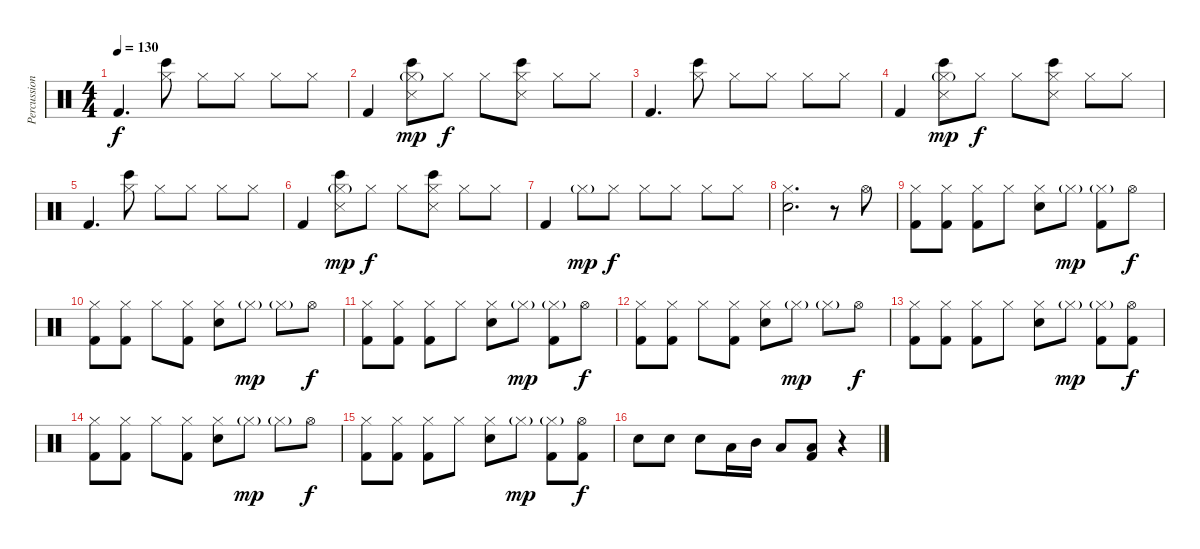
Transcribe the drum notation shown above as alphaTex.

\track ("Percussion" "Percussion") {instrument percussion}
\staff {score}
\articulation defaults
\ts (4 4)
\tempo 130
\clef neutral
\ks c "Kick (hit) 2".4{d dy f}
("Hi-Hat (closed)" "Bongo High (hit)").8 "Hi-Hat (closed)".8 "Hi-Hat (closed)".8 "Hi-Hat (closed)".8 "Hi-Hat (closed)".8 |
"Kick (hit) 2".4 ("Hi-Hat (closed)"{g} "Bongo High (hit)" "Snare (side stick) 3").8{dy mp} "Hi-Hat (closed)".8{dy f} "Hi-Hat (closed)".8 ("Hi-Hat (closed)" "Bongo High (hit)" "Snare (side stick) 3").8 "Hi-Hat (closed)".8 "Hi-Hat (closed)".8 |
"Kick (hit) 2".4{d} ("Hi-Hat (closed)" "Bongo High (hit)").8 "Hi-Hat (closed)".8 "Hi-Hat (closed)".8 "Hi-Hat (closed)".8 "Hi-Hat (closed)".8 |
"Kick (hit) 2".4 ("Hi-Hat (closed)"{g} "Bongo High (hit)" "Snare (side stick) 3").8{dy mp} "Hi-Hat (closed)".8{dy f} "Hi-Hat (closed)".8 ("Hi-Hat (closed)" "Bongo High (hit)" "Snare (side stick) 3").8 "Hi-Hat (closed)".8 "Hi-Hat (closed)".8 |
"Kick (hit) 2".4{d} ("Hi-Hat (closed)" "Bongo High (hit)").8 "Hi-Hat (closed)".8 "Hi-Hat (closed)".8 "Hi-Hat (closed)".8 "Hi-Hat (closed)".8 |
"Kick (hit) 2".4 ("Hi-Hat (closed)"{g} "Bongo High (hit)" "Snare (side stick) 3").8{dy mp} "Hi-Hat (closed)".8{dy f} "Hi-Hat (closed)".8 ("Hi-Hat (closed)" "Bongo High (hit)" "Snare (side stick) 3").8 "Hi-Hat (closed)".8 "Hi-Hat (closed)".8 |
"Kick (hit) 2".4 "Hi-Hat (closed)"{g}.8{dy mp} "Hi-Hat (closed)".8{dy f} "Hi-Hat (closed)".8 "Hi-Hat (closed)".8 "Hi-Hat (closed)".8 "Hi-Hat (closed)".8 |
("Hi-Hat (closed)" "Snare (hit) 2").2{d} r.8 "Hi-Hat (open)".8 |
("Hi-Hat (closed)" "Kick (hit) 2").8 ("Hi-Hat (closed)" "Kick (hit) 2").8 ("Hi-Hat (closed)" "Kick (hit) 2").8 "Hi-Hat (closed)".8 ("Hi-Hat (closed)" "Snare (hit) 2").8 "Hi-Hat (closed)"{g}.8{dy mp} ("Hi-Hat (closed)"{g} "Kick (hit) 2").8 "Hi-Hat (open)".8{dy f} |
("Hi-Hat (closed)" "Kick (hit) 2").8 ("Hi-Hat (closed)" "Kick (hit) 2").8 "Hi-Hat (closed)".8 ("Hi-Hat (closed)" "Kick (hit) 2").8 ("Hi-Hat (closed)" "Snare (hit) 2").8 "Hi-Hat (closed)"{g}.8{dy mp} "Hi-Hat (closed)"{g}.8 "Hi-Hat (open)".8{dy f} |
("Hi-Hat (closed)" "Kick (hit) 2").8 ("Hi-Hat (closed)" "Kick (hit) 2").8 ("Hi-Hat (closed)" "Kick (hit) 2").8 "Hi-Hat (closed)".8 ("Hi-Hat (closed)" "Snare (hit) 2").8 "Hi-Hat (closed)"{g}.8{dy mp} ("Hi-Hat (closed)"{g} "Kick (hit) 2").8 "Hi-Hat (open)".8{dy f} |
("Hi-Hat (closed)" "Kick (hit) 2").8 ("Hi-Hat (closed)" "Kick (hit) 2").8 "Hi-Hat (closed)".8 ("Hi-Hat (closed)" "Kick (hit) 2").8 ("Hi-Hat (closed)" "Snare (hit) 2").8 "Hi-Hat (closed)"{g}.8{dy mp} "Hi-Hat (closed)"{g}.8 "Hi-Hat (open)".8{dy f} |
("Hi-Hat (closed)" "Kick (hit) 2").8 ("Hi-Hat (closed)" "Kick (hit) 2").8 ("Hi-Hat (closed)" "Kick (hit) 2").8 "Hi-Hat (closed)".8 ("Hi-Hat (closed)" "Snare (hit) 2").8 "Hi-Hat (closed)"{g}.8{dy mp} ("Hi-Hat (closed)"{g} "Kick (hit) 2").8 ("Hi-Hat (open)" "Kick (hit) 2").8{dy f} |
("Hi-Hat (closed)" "Kick (hit) 2").8 ("Hi-Hat (closed)" "Kick (hit) 2").8 "Hi-Hat (closed)".8 ("Hi-Hat (closed)" "Kick (hit) 2").8 ("Hi-Hat (closed)" "Snare (hit) 2").8 "Hi-Hat (closed)"{g}.8{dy mp} "Hi-Hat (closed)"{g}.8 "Hi-Hat (open)".8{dy f} |
("Hi-Hat (closed)" "Kick (hit) 2").8 ("Hi-Hat (closed)" "Kick (hit) 2").8 ("Hi-Hat (closed)" "Kick (hit) 2").8 "Hi-Hat (closed)".8 ("Hi-Hat (closed)" "Snare (hit) 2").8 "Hi-Hat (closed)"{g}.8{dy mp} ("Hi-Hat (closed)"{g} "Kick (hit) 2").8 ("Hi-Hat (open)" "Kick (hit) 2").8{dy f} |
"Snare (hit) 2".8 "Snare (hit) 2".8 "Snare (hit) 2".8 "Low Floor Tom (hit)".16 "Mid Tom (hit)".16 "Low Floor Tom (hit)".8 ("Low Tom (hit)" "Kick (hit) 2").8 r.4
